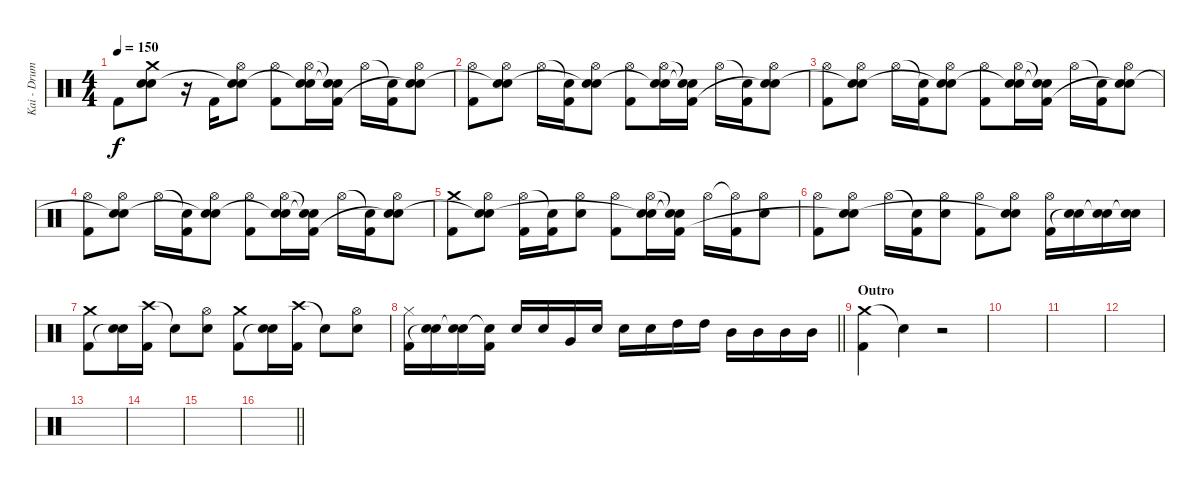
\track ("Kai - Drums" "Kai - Drum") {instrument percussion}
\staff {score}
\articulation defaults
\ts (4 4)
\tempo 150
\clef neutral
\ks c "Kick (hit) 2".8{dy f}
("Crash medium (hit)" "Snare (hit) 2" "Snare (hit)"{t}).8 r.16 "Kick (hit) 2".16 ("Hi-Hat (open)" "Snare (hit) 2" "Snare (hit)"{t}).8 ("Hi-Hat (open)" "Kick (hit) 2").8 ("Hi-Hat (open)" "Snare (hit) 2" "Snare (hit)"{t}).16 ("Snare (hit)"{t} "Snare (hit)"{t} "Kick (hit) 2").16 "Hi-Hat (open)".16 ("Snare (hit)"{t} "Kick (hit) 2").16 ("Hi-Hat (open)" "Snare (hit) 2" "Snare (hit)"{t}).8 |
("Hi-Hat (open)" "Kick (hit) 2").8 ("Hi-Hat (open)" "Snare (hit) 2" "Snare (hit)"{t}).8 "Hi-Hat (open)".16 ("Snare (hit)"{t} "Kick (hit) 2").16 ("Hi-Hat (open)" "Snare (hit) 2" "Snare (hit)"{t}).8 ("Hi-Hat (open)" "Kick (hit) 2").8 ("Hi-Hat (open)" "Snare (hit) 2" "Snare (hit)"{t}).16 ("Snare (hit)"{t} "Snare (hit)"{t} "Kick (hit) 2").16 "Hi-Hat (open)".16 ("Snare (hit)"{t} "Kick (hit) 2").16 ("Hi-Hat (open)" "Snare (hit) 2" "Snare (hit)"{t}).8 |
("Hi-Hat (open)" "Kick (hit) 2").8 ("Hi-Hat (open)" "Snare (hit) 2" "Snare (hit)"{t}).8 "Hi-Hat (open)".16 ("Snare (hit)"{t} "Kick (hit) 2").16 ("Hi-Hat (open)" "Snare (hit) 2" "Snare (hit)"{t}).8 ("Hi-Hat (open)" "Kick (hit) 2").8 ("Hi-Hat (open)" "Snare (hit) 2" "Snare (hit)"{t}).16 ("Snare (hit)"{t} "Snare (hit)"{t} "Kick (hit) 2").16 "Hi-Hat (open)".16 ("Snare (hit)"{t} "Kick (hit) 2").16 ("Hi-Hat (open)" "Snare (hit) 2" "Snare (hit)"{t}).8 |
("Hi-Hat (open)" "Kick (hit) 2").8 ("Hi-Hat (open)" "Snare (hit) 2" "Snare (hit)"{t}).8 "Hi-Hat (open)".16 ("Snare (hit)"{t} "Kick (hit) 2").16 ("Hi-Hat (open)" "Snare (hit) 2" "Snare (hit)"{t}).8 ("Hi-Hat (open)" "Kick (hit) 2").8 ("Hi-Hat (open)" "Snare (hit) 2" "Snare (hit)"{t}).16 ("Snare (hit)"{t} "Snare (hit)"{t} "Kick (hit) 2").16 "Hi-Hat (open)".16 ("Snare (hit)"{t} "Kick (hit) 2").16 ("Hi-Hat (open)" "Snare (hit) 2" "Snare (hit)"{t}).8 |
("Crash medium (hit)" "Kick (hit) 2").8 ("Hi-Hat (open)" "Snare (hit) 2" "Snare (hit)"{t}).8 ("Hi-Hat (open)" "Kick (hit) 2").16 ("Snare (hit)"{t} "Kick (hit) 2").16 ("Hi-Hat (open)" "Snare (hit) 2").8 ("Hi-Hat (open)" "Kick (hit) 2").8 ("Hi-Hat (open)" "Snare (hit) 2" "Snare (hit)"{t}).16 ("Snare (hit)"{t} "Snare (hit)"{t} "Kick (hit) 2").16 "Hi-Hat (open)".16 ("Hi-Hat (open)"{t} "Kick (hit) 2").16 ("Hi-Hat (open)" "Snare (hit) 2").8 |
("Hi-Hat (open)" "Kick (hit) 2").8 ("Hi-Hat (open)" "Snare (hit) 2" "Snare (hit)"{t}).8 "Hi-Hat (open)".16 ("Snare (hit)"{t} "Kick (hit) 2").16 ("Hi-Hat (open)" "Snare (hit) 2").8 ("Hi-Hat (open)" "Kick (hit) 2").8 ("Hi-Hat (open)" "Snare (hit) 2" "Snare (hit)"{t}).8 ("Hi-Hat (open)" "Kick (hit) 2").16 ("Snare (hit) 2" "Snare (hit)"{t}).16 ("Snare (hit) 2" "Snare (hit)"{t}).16 ("Snare (hit) 2" "Snare (hit)"{t}).16 |
("Crash medium (hit)" "Kick (hit) 2").8 ("Snare (hit) 2" "Snare (hit)"{t}).16 ("Crash high (hit)" "Kick (hit) 2").16 "Snare (hit)"{t}.8 ("Hi-Hat (open)" "Snare (hit) 2").8 ("Crash medium (hit)" "Kick (hit) 2").8 ("Snare (hit) 2" "Snare (hit)"{t}).16 ("Crash high (hit)" "Kick (hit) 2").16 "Snare (hit)"{t}.8 ("Hi-Hat (open)" "Snare (hit) 2").8 |
\barLineRight lightlight
("Hi-Hat (closed)" "Kick (hit) 2").16 ("Snare (hit) 2" "Snare (hit)"{t}).16 ("Snare (hit) 2" "Snare (hit)"{t}).16 ("Snare (hit)"{t} "Kick (hit) 2").16 "Snare (hit) 2".16 "Snare (hit) 2".16 "Very Low Tom (hit)".16 "Snare (hit) 2".16 "Snare (hit) 2".16 "Snare (hit) 2".16 "High Tom (hit)".16 "High Tom (hit)".16 "Mid Tom (hit)".16 "Mid Tom (hit)".16 "Mid Tom (hit)".16 "Mid Tom (hit)".16 |
\section ("" "Outro")
("Crash medium (hit)" "Kick (hit) 2").4 "Snare (hit)"{t}.4 r.2 |
|
|
|
|
|
|
\barLineRight lightlight
